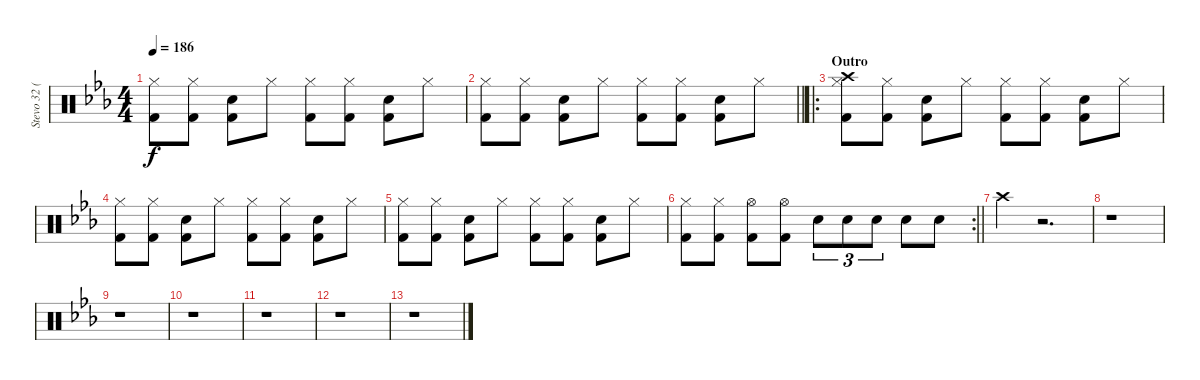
\track ("Stevo 32 (Drums)" "Stevo 32 (") {instrument percussion}
\staff {score}
\articulation defaults
\ts (4 4)
\tempo 186
\clef neutral
\ks eb
("Kick (hit) 2" "Hi-Hat (closed)").8{dy f} ("Kick (hit) 2" "Hi-Hat (closed)").8 ("Kick (hit) 2" "Snare (hit) 2").8 "Hi-Hat (closed)".8 ("Kick (hit) 2" "Hi-Hat (closed)").8 ("Kick (hit) 2" "Hi-Hat (closed)").8 ("Kick (hit) 2" "Snare (hit) 2").8 "Hi-Hat (closed)".8 |
\barLineRight lightlight
("Kick (hit) 2" "Hi-Hat (closed)").8 ("Kick (hit) 2" "Hi-Hat (closed)").8 ("Kick (hit) 2" "Snare (hit) 2").8 "Hi-Hat (closed)".8 ("Kick (hit) 2" "Hi-Hat (closed)").8 ("Kick (hit) 2" "Hi-Hat (closed)").8 ("Kick (hit) 2" "Snare (hit) 2").8 "Hi-Hat (closed)".8 |
\ro
\section ("" "Outro")
("Kick (hit) 2" "Crash high (hit)" "Hi-Hat (closed)").8 ("Kick (hit) 2" "Hi-Hat (closed)").8 ("Kick (hit) 2" "Snare (hit) 2").8 "Hi-Hat (closed)".8 ("Kick (hit) 2" "Hi-Hat (closed)").8 ("Kick (hit) 2" "Hi-Hat (closed)").8 ("Kick (hit) 2" "Snare (hit) 2").8 "Hi-Hat (closed)".8 |
("Kick (hit) 2" "Hi-Hat (closed)").8 ("Kick (hit) 2" "Hi-Hat (closed)").8 ("Kick (hit) 2" "Snare (hit) 2").8 "Hi-Hat (closed)".8 ("Kick (hit) 2" "Hi-Hat (closed)").8 ("Kick (hit) 2" "Hi-Hat (closed)").8 ("Kick (hit) 2" "Snare (hit) 2").8 "Hi-Hat (closed)".8 |
("Kick (hit) 2" "Hi-Hat (closed)").8 ("Kick (hit) 2" "Hi-Hat (closed)").8 ("Kick (hit) 2" "Snare (hit) 2").8 "Hi-Hat (closed)".8 ("Kick (hit) 2" "Hi-Hat (closed)").8 ("Kick (hit) 2" "Hi-Hat (closed)").8 ("Kick (hit) 2" "Snare (hit) 2").8 "Hi-Hat (closed)".8 |
\rc 2
\barLineRight lightlight
("Kick (hit) 2" "Hi-Hat (closed)").8 ("Kick (hit) 2" "Hi-Hat (closed)").8 ("Kick (hit) 2" "Hi-Hat (open)").8 ("Kick (hit) 2" "Hi-Hat (open)").8 "Snare (hit) 2".8{tu (3 2)} "Snare (hit) 2".8{tu (3 2)} "Snare (hit) 2".8{tu (3 2)} "Snare (hit) 2".8 "Snare (hit) 2".8 |
"Crash high (hit)".4 r.2{d} |
r.1 |
r.1 |
r.1 |
r.1 |
r.1 |
r.1
